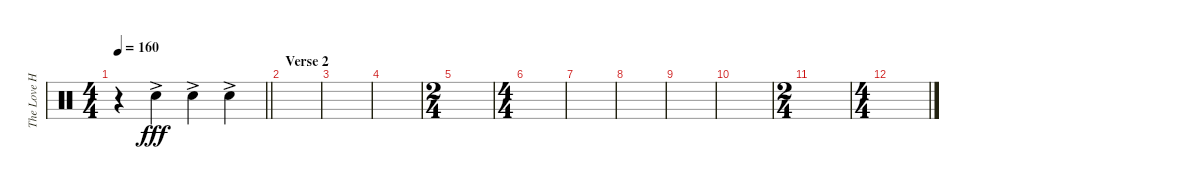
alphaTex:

\track ("The Love Haters (Hand Clap)(Drums)" "The Love H") {instrument percussion}
\staff {score}
\articulation defaults
\ts (4 4)
\tempo 160
\clef neutral
\barLineRight lightlight
\ks c
r.4{dy fff} "Hand Clap (hit)"{ac}.4 "Hand Clap (hit)"{ac}.4 "Hand Clap (hit)"{ac}.4 |
\section ("" "Verse 2")
|
|
|
\ts (2 4)
|
\ts (4 4)
|
|
|
|
|
\ts (2 4)
|
\ts (4 4)
